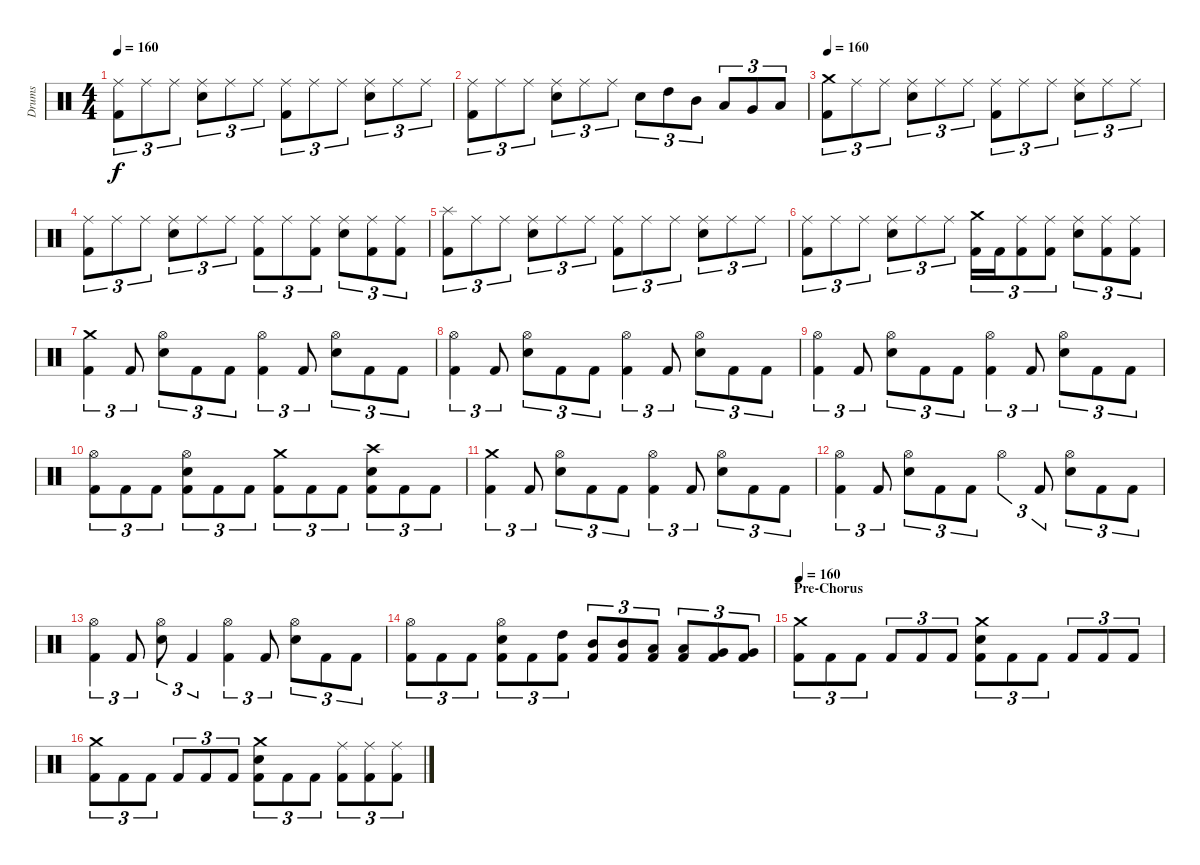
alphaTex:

\track ("Drums" "Drums") {instrument percussion}
\staff {score}
\articulation defaults
\ts (4 4)
\tempo 160
\clef neutral
\ks c
("Kick (hit) 2" "Ride (middle)").8{tu (3 2) dy f} "Ride (middle)".8{tu (3 2)} "Ride (middle)".8{tu (3 2)} ("Electric Snare (hit)" "Ride (middle)").8{tu (3 2)} "Ride (middle)".8{tu (3 2)} "Ride (middle)".8{tu (3 2)} ("Kick (hit) 2" "Ride (middle)").8{tu (3 2)} "Ride (middle)".8{tu (3 2)} "Ride (middle)".8{tu (3 2)} ("Electric Snare (hit)" "Ride (middle)").8{tu (3 2)} "Ride (middle)".8{tu (3 2)} "Ride (middle)".8{tu (3 2)} |
("Kick (hit) 2" "Ride (middle)").8{tu (3 2)} "Ride (middle)".8{tu (3 2)} "Ride (middle)".8{tu (3 2)} ("Electric Snare (hit)" "Ride (middle)").8{tu (3 2)} "Ride (middle)".8{tu (3 2)} "Ride (middle)".8{tu (3 2)} "Electric Snare (hit)".8{tu (3 2)} "High Tom (hit)".8{tu (3 2)} "Mid Tom (hit)".8{tu (3 2)} "Low Tom (hit)".8{tu (3 2)} "Very Low Tom (hit)".8{tu (3 2)} "Low Floor Tom (hit)".8{tu (3 2)} |
\tempo 160
("Kick (hit) 2" "Crash medium (hit)").8{tu (3 2)} "Ride (middle)".8{tu (3 2)} "Ride (middle)".8{tu (3 2)} ("Electric Snare (hit)" "Ride (middle)").8{tu (3 2)} "Ride (middle)".8{tu (3 2)} "Ride (middle)".8{tu (3 2)} ("Kick (hit) 2" "Ride (middle)").8{tu (3 2)} "Ride (middle)".8{tu (3 2)} "Ride (middle)".8{tu (3 2)} ("Electric Snare (hit)" "Ride (middle)").8{tu (3 2)} "Ride (middle)".8{tu (3 2)} "Ride (middle)".8{tu (3 2)} |
("Kick (hit) 2" "Ride (middle)").8{tu (3 2)} "Ride (middle)".8{tu (3 2)} "Ride (middle)".8{tu (3 2)} ("Electric Snare (hit)" "Ride (middle)").8{tu (3 2)} "Ride (middle)".8{tu (3 2)} "Ride (middle)".8{tu (3 2)} ("Kick (hit) 2" "Ride (middle)").8{tu (3 2)} "Ride (middle)".8{tu (3 2)} ("Kick (hit) 2" "Ride (middle)").8{tu (3 2)} ("Electric Snare (hit)" "Ride (middle)").8{tu (3 2)} ("Kick (hit) 2" "Ride (middle)").8{tu (3 2)} ("Kick (hit) 2" "Ride (middle)").8{tu (3 2)} |
("Kick (hit) 2" "Splash (hit)").8{tu (3 2)} "Ride (middle)".8{tu (3 2)} "Ride (middle)".8{tu (3 2)} ("Electric Snare (hit)" "Ride (middle)").8{tu (3 2)} "Ride (middle)".8{tu (3 2)} "Ride (middle)".8{tu (3 2)} ("Kick (hit) 2" "Ride (middle)").8{tu (3 2)} "Ride (middle)".8{tu (3 2)} "Ride (middle)".8{tu (3 2)} ("Electric Snare (hit)" "Ride (middle)").8{tu (3 2)} "Ride (middle)".8{tu (3 2)} "Ride (middle)".8{tu (3 2)} |
("Kick (hit) 2" "Ride (middle)").8{tu (3 2)} "Ride (middle)".8{tu (3 2)} "Ride (middle)".8{tu (3 2)} ("Electric Snare (hit)" "Ride (middle)").8{tu (3 2)} "Ride (middle)".8{tu (3 2)} "Ride (middle)".8{tu (3 2)} ("Kick (hit) 2" "Crash medium (hit)").16{tu (3 2)} "Kick (hit) 2".16{tu (3 2)} ("Kick (hit) 2" "Ride (middle)").8{tu (3 2)} ("Kick (hit) 2" "Ride (middle)").8{tu (3 2)} ("Electric Snare (hit)" "Ride (middle)").8{tu (3 2)} ("Kick (hit) 2" "Ride (middle)").8{tu (3 2)} ("Kick (hit) 2" "Ride (middle)").8{tu (3 2)} |
("Kick (hit) 2" "Crash medium (hit)").4{tu (3 2)} "Kick (hit) 2".8{tu (3 2)} ("Electric Snare (hit)" "Hi-Hat (open)").8{tu (3 2)} "Kick (hit) 2".8{tu (3 2)} "Kick (hit) 2".8{tu (3 2)} ("Kick (hit) 2" "Hi-Hat (open)").4{tu (3 2)} "Kick (hit) 2".8{tu (3 2)} ("Electric Snare (hit)" "Hi-Hat (open)").8{tu (3 2)} "Kick (hit) 2".8{tu (3 2)} "Kick (hit) 2".8{tu (3 2)} |
("Kick (hit) 2" "Hi-Hat (open)").4{tu (3 2)} "Kick (hit) 2".8{tu (3 2)} ("Electric Snare (hit)" "Hi-Hat (open)").8{tu (3 2)} "Kick (hit) 2".8{tu (3 2)} "Kick (hit) 2".8{tu (3 2)} ("Kick (hit) 2" "Hi-Hat (open)").4{tu (3 2)} "Kick (hit) 2".8{tu (3 2)} ("Electric Snare (hit)" "Hi-Hat (open)").8{tu (3 2)} "Kick (hit) 2".8{tu (3 2)} "Kick (hit) 2".8{tu (3 2)} |
("Kick (hit) 2" "Hi-Hat (open)").4{tu (3 2)} "Kick (hit) 2".8{tu (3 2)} ("Electric Snare (hit)" "Hi-Hat (open)").8{tu (3 2)} "Kick (hit) 2".8{tu (3 2)} "Kick (hit) 2".8{tu (3 2)} ("Kick (hit) 2" "Hi-Hat (open)").4{tu (3 2)} "Kick (hit) 2".8{tu (3 2)} ("Electric Snare (hit)" "Hi-Hat (open)").8{tu (3 2)} "Kick (hit) 2".8{tu (3 2)} "Kick (hit) 2".8{tu (3 2)} |
("Kick (hit) 2" "Hi-Hat (open)").8{tu (3 2)} "Kick (hit) 2".8{tu (3 2)} "Kick (hit) 2".8{tu (3 2)} ("Kick (hit) 2" "Electric Snare (hit)" "Hi-Hat (open)").8{tu (3 2)} "Kick (hit) 2".8{tu (3 2)} "Kick (hit) 2".8{tu (3 2)} ("Kick (hit) 2" "Crash medium (hit)").8{tu (3 2)} "Kick (hit) 2".8{tu (3 2)} "Kick (hit) 2".8{tu (3 2)} ("Kick (hit) 2" "Electric Snare (hit)" "Crash high (hit)").8{tu (3 2)} "Kick (hit) 2".8{tu (3 2)} "Kick (hit) 2".8{tu (3 2)} |
("Kick (hit) 2" "Crash medium (hit)").4{tu (3 2)} "Kick (hit) 2".8{tu (3 2)} ("Electric Snare (hit)" "Hi-Hat (open)").8{tu (3 2)} "Kick (hit) 2".8{tu (3 2)} "Kick (hit) 2".8{tu (3 2)} ("Kick (hit) 2" "Hi-Hat (open)").4{tu (3 2)} "Kick (hit) 2".8{tu (3 2)} ("Electric Snare (hit)" "Hi-Hat (open)").8{tu (3 2)} "Kick (hit) 2".8{tu (3 2)} "Kick (hit) 2".8{tu (3 2)} |
("Kick (hit) 2" "Hi-Hat (open)").4{tu (3 2)} "Kick (hit) 2".8{tu (3 2)} ("Electric Snare (hit)" "Hi-Hat (open)").8{tu (3 2)} "Kick (hit) 2".8{tu (3 2)} "Kick (hit) 2".8{tu (3 2)} "Hi-Hat (open)".4{tu (3 2)} "Kick (hit) 2".8{tu (3 2)} ("Electric Snare (hit)" "Hi-Hat (open)").8{tu (3 2)} "Kick (hit) 2".8{tu (3 2)} "Kick (hit) 2".8{tu (3 2)} |
("Kick (hit) 2" "Hi-Hat (open)").4{tu (3 2)} "Kick (hit) 2".8{tu (3 2)} ("Electric Snare (hit)" "Hi-Hat (open)").8{tu (3 2)} "Kick (hit) 2".4{tu (3 2)} ("Kick (hit) 2" "Hi-Hat (open)").4{tu (3 2)} "Kick (hit) 2".8{tu (3 2)} ("Electric Snare (hit)" "Hi-Hat (open)").8{tu (3 2)} "Kick (hit) 2".8{tu (3 2)} "Kick (hit) 2".8{tu (3 2)} |
("Kick (hit) 2" "Hi-Hat (open)").8{tu (3 2)} "Kick (hit) 2".8{tu (3 2)} "Kick (hit) 2".8{tu (3 2)} ("Kick (hit) 2" "Electric Snare (hit)" "Hi-Hat (open)").8{tu (3 2)} "Kick (hit) 2".8{tu (3 2)} ("Kick (hit) 2" "High Tom (hit)").8{tu (3 2)} ("Kick (hit) 2" "Mid Tom (hit)").8{tu (3 2)} ("Kick (hit) 2" "Mid Tom (hit)").8{tu (3 2)} ("Kick (hit) 2" "Low Tom (hit)").8{tu (3 2)} ("Kick (hit) 2" "Low Tom (hit)").8{tu (3 2)} ("Kick (hit) 2" "Very Low Tom (hit)").8{tu (3 2)} ("Kick (hit) 2" "Very Low Tom (hit)").8{tu (3 2)} |
\section ("" "Pre-Chorus")
\tempo 160
("Kick (hit) 2" "Crash medium (hit)").8{tu (3 2)} "Kick (hit) 2".8{tu (3 2)} "Kick (hit) 2".8{tu (3 2)} "Kick (hit) 2".8{tu (3 2)} "Kick (hit) 2".8{tu (3 2)} "Kick (hit) 2".8{tu (3 2)} ("Kick (hit) 2" "Electric Snare (hit)" "Crash medium (hit)").8{tu (3 2)} "Kick (hit) 2".8{tu (3 2)} "Kick (hit) 2".8{tu (3 2)} "Kick (hit) 2".8{tu (3 2)} "Kick (hit) 2".8{tu (3 2)} "Kick (hit) 2".8{tu (3 2)} |
("Kick (hit) 2" "Crash medium (hit)").8{tu (3 2)} "Kick (hit) 2".8{tu (3 2)} "Kick (hit) 2".8{tu (3 2)} "Kick (hit) 2".8{tu (3 2)} "Kick (hit) 2".8{tu (3 2)} "Kick (hit) 2".8{tu (3 2)} ("Kick (hit) 2" "Electric Snare (hit)" "Crash medium (hit)").8{tu (3 2)} "Kick (hit) 2".8{tu (3 2)} "Kick (hit) 2".8{tu (3 2)} ("Kick (hit) 2" "Ride (middle)").8{tu (3 2)} ("Kick (hit) 2" "Ride (middle)").8{tu (3 2)} ("Kick (hit) 2" "Ride (middle)").8{tu (3 2)}
